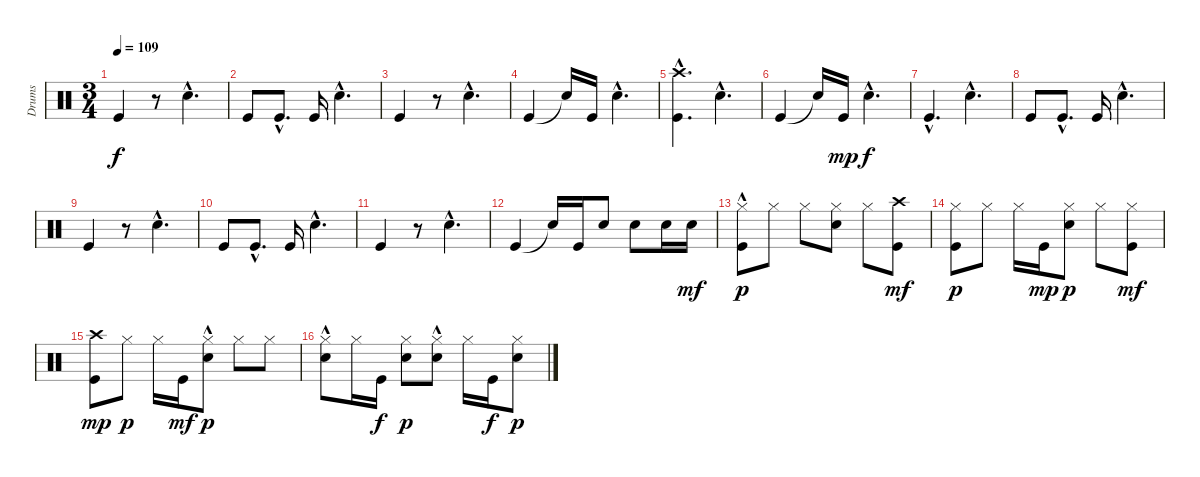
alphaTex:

\track ("Drums" "Drums") {instrument percussion}
\staff {score}
\articulation defaults
\ts (3 4)
\tempo 109
\clef neutral
\ks c "Kick (hit)".4{dy f}
r.8 "Electric Snare (hit)"{hac}.4{d} |
"Kick (hit)".8 "Kick (hit)"{hac}.8{d} "Kick (hit)".16 "Electric Snare (hit)"{hac}.4{d} |
"Kick (hit)".4 r.8 "Electric Snare (hit)"{hac}.4{d} |
"Kick (hit)".4 "Snare (hit)"{t}.16 "Kick (hit)".16 "Electric Snare (hit)"{hac}.4{d} |
("Crash high (hit)"{hac} "Kick (hit)"{hac}).4{d} "Electric Snare (hit)"{hac}.4{d} |
"Kick (hit)".4 "Snare (hit)"{t}.16 "Kick (hit)".16{dy mp} "Electric Snare (hit)"{hac}.4{d dy f} |
"Kick (hit)"{hac}.4{d} "Electric Snare (hit)"{hac}.4{d} |
"Kick (hit)".8 "Kick (hit)"{hac}.8{d} "Kick (hit)".16 "Electric Snare (hit)"{hac}.4{d} |
"Kick (hit)".4 r.8 "Electric Snare (hit)"{hac}.4{d} |
"Kick (hit)".8 "Kick (hit)"{hac}.8{d} "Kick (hit)".16 "Electric Snare (hit)"{hac}.4{d} |
"Kick (hit)".4 r.8 "Electric Snare (hit)"{hac}.4{d} |
"Kick (hit)".4 "Snare (hit)"{t}.16 "Kick (hit)".16 "Electric Snare (hit)".8 "Electric Snare (hit)".8 "Electric Snare (hit)".16 "Electric Snare (hit)".16{dy mf} |
("Hi-Hat (closed)" "Kick (hit)"{hac}).8{dy p} "Hi-Hat (closed)".8 "Hi-Hat (closed)".8 ("Hi-Hat (closed)" "Electric Snare (hit)").8 "Hi-Hat (closed)".8 ("Crash high (hit)" "Kick (hit)").8{dy mf} |
("Hi-Hat (closed)" "Kick (hit)").8{dy p} "Hi-Hat (closed)".8 "Hi-Hat (closed)".16 "Kick (hit)".16{dy mp} ("Hi-Hat (closed)" "Electric Snare (hit)").8{dy p} "Hi-Hat (closed)".8 ("Hi-Hat (closed)" "Kick (hit)").8{dy mf} |
("Crash high (hit)" "Kick (hit)").8{dy mp} "Hi-Hat (closed)".8{dy p} "Hi-Hat (closed)".16 "Kick (hit)".16{dy mf} ("Hi-Hat (closed)" "Electric Snare (hit)"{hac}).8{dy p} "Hi-Hat (closed)".8 "Hi-Hat (closed)".8 |
("Hi-Hat (closed)" "Electric Snare (hit)"{hac}).8 "Hi-Hat (closed)".16 "Kick (hit)".16{dy f} ("Hi-Hat (closed)" "Electric Snare (hit)").8{dy p} ("Hi-Hat (closed)" "Electric Snare (hit)"{hac}).8 "Hi-Hat (closed)".16 "Kick (hit)".16{dy f} ("Hi-Hat (closed)" "Electric Snare (hit)").8{dy p}
